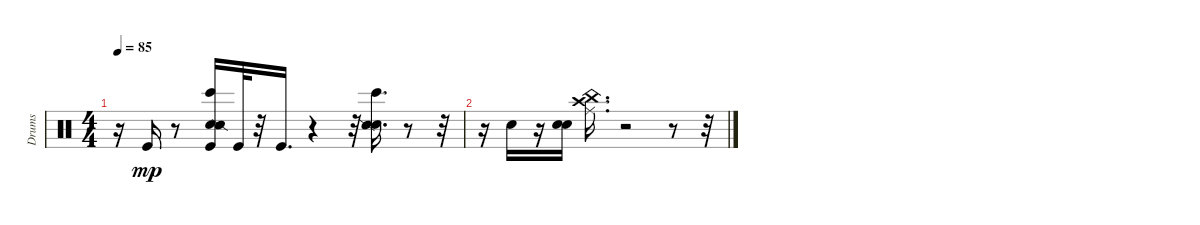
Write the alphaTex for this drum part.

\track ("Drums" "Drums") {instrument percussion}
\staff {score}
\articulation defaults
\ts (4 4)
\tempo 85
\clef neutral
\ks c
r.16{dy mp} "Kick (hit)".16 r.8 ("Electric Snare (hit)" "Kick (hit)" "Bongo High (hit)" "Snare (side stick) 2").16 "Kick (hit)".32 r.32 "Kick (hit)".16{d} r.4 r.32 ("Electric Snare (hit)" "Snare (side stick) 2" "Bongo High (hit)").16{d} r.8 r.32 |
r.16 "Electric Snare (hit)".16 r.16 ("Electric Snare (hit)" "Electric Snare (hit)").16 ("China (hit)" "Crash high (hit)" "Ride (middle)").16{d} r.2 r.8 r.32
